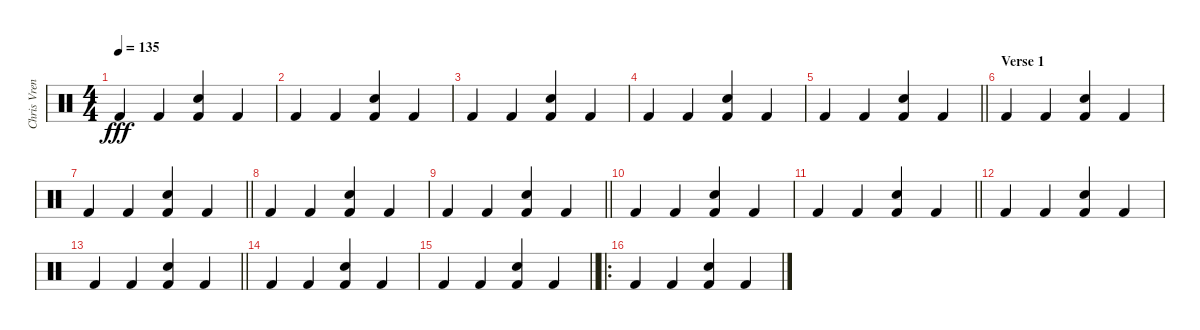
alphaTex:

\track ("Chris Vrenna (percussions)" "Chris Vren") {instrument percussion}
\staff {score}
\articulation defaults
\ts (4 4)
\tempo 135
\clef neutral
\ks c "Kick (hit) 2".4{dy fff} "Kick (hit) 2".4
("Snare (hit) 2" "Kick (hit) 2").4 "Kick (hit) 2".4 |
"Kick (hit) 2".4 "Kick (hit) 2".4 ("Snare (hit) 2" "Kick (hit) 2").4 "Kick (hit) 2".4 |
"Kick (hit) 2".4 "Kick (hit) 2".4 ("Snare (hit) 2" "Kick (hit) 2").4 "Kick (hit) 2".4 |
"Kick (hit) 2".4 "Kick (hit) 2".4 ("Snare (hit) 2" "Kick (hit) 2").4 "Kick (hit) 2".4 |
\barLineRight lightlight "Kick (hit) 2".4 "Kick (hit) 2".4
("Snare (hit) 2" "Kick (hit) 2").4 "Kick (hit) 2".4 |
\section ("" "Verse 1")
"Kick (hit) 2".4 "Kick (hit) 2".4 ("Snare (hit) 2" "Kick (hit) 2").4 "Kick (hit) 2".4 |
\barLineRight lightlight "Kick (hit) 2".4 "Kick (hit) 2".4
("Snare (hit) 2" "Kick (hit) 2").4 "Kick (hit) 2".4 |
"Kick (hit) 2".4 "Kick (hit) 2".4 ("Snare (hit) 2" "Kick (hit) 2").4 "Kick (hit) 2".4 |
\barLineRight lightlight "Kick (hit) 2".4 "Kick (hit) 2".4
("Snare (hit) 2" "Kick (hit) 2").4 "Kick (hit) 2".4 |
"Kick (hit) 2".4 "Kick (hit) 2".4 ("Snare (hit) 2" "Kick (hit) 2").4 "Kick (hit) 2".4 |
\barLineRight lightlight "Kick (hit) 2".4 "Kick (hit) 2".4
("Snare (hit) 2" "Kick (hit) 2").4 "Kick (hit) 2".4 |
"Kick (hit) 2".4 "Kick (hit) 2".4 ("Snare (hit) 2" "Kick (hit) 2").4 "Kick (hit) 2".4 |
\barLineRight lightlight "Kick (hit) 2".4 "Kick (hit) 2".4
("Snare (hit) 2" "Kick (hit) 2").4 "Kick (hit) 2".4 |
"Kick (hit) 2".4 "Kick (hit) 2".4 ("Snare (hit) 2" "Kick (hit) 2").4 "Kick (hit) 2".4 |
\barLineRight lightlight "Kick (hit) 2".4 "Kick (hit) 2".4
("Snare (hit) 2" "Kick (hit) 2").4 "Kick (hit) 2".4 |
\ro "Kick (hit) 2".4 "Kick (hit) 2".4
("Snare (hit) 2" "Kick (hit) 2").4 "Kick (hit) 2".4
